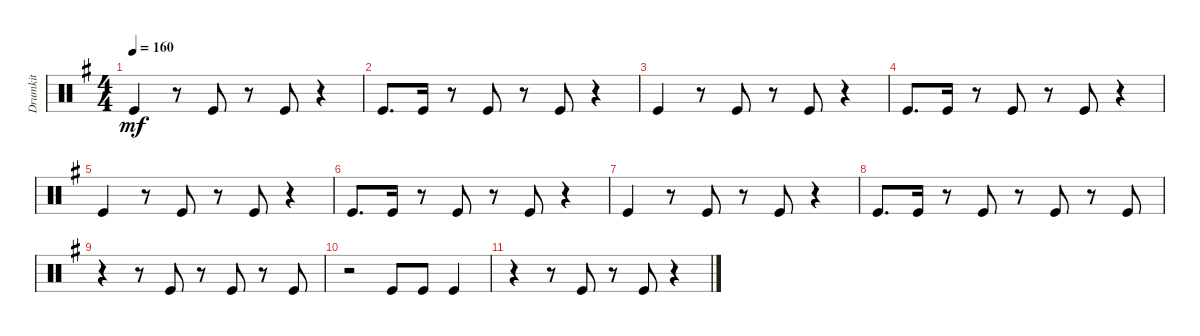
\track ("Drumkit" "Drumkit") {instrument percussion}
\staff {score}
\articulation defaults
\ts (4 4)
\tempo 160
\clef neutral
\ks g "Kick (hit)".4{dy mf}
r.8 "Kick (hit)".8 r.8 "Kick (hit)".8 r.4 |
"Kick (hit)".8{d} "Kick (hit)".16 r.8 "Kick (hit)".8 r.8 "Kick (hit)".8 r.4 |
"Kick (hit)".4 r.8 "Kick (hit)".8 r.8 "Kick (hit)".8 r.4 |
"Kick (hit)".8{d} "Kick (hit)".16 r.8 "Kick (hit)".8 r.8 "Kick (hit)".8 r.4 |
"Kick (hit)".4 r.8 "Kick (hit)".8 r.8 "Kick (hit)".8 r.4 |
"Kick (hit)".8{d} "Kick (hit)".16 r.8 "Kick (hit)".8 r.8 "Kick (hit)".8 r.4 |
"Kick (hit)".4 r.8 "Kick (hit)".8 r.8 "Kick (hit)".8 r.4 |
"Kick (hit)".8{d} "Kick (hit)".16 r.8 "Kick (hit)".8 r.8 "Kick (hit)".8 r.8 "Kick (hit)".8 |
r.4 r.8 "Kick (hit)".8 r.8 "Kick (hit)".8 r.8 "Kick (hit)".8 |
r.2 "Kick (hit)".8 "Kick (hit)".8 "Kick (hit)".4 |
r.4 r.8 "Kick (hit)".8 r.8 "Kick (hit)".8 r.4
